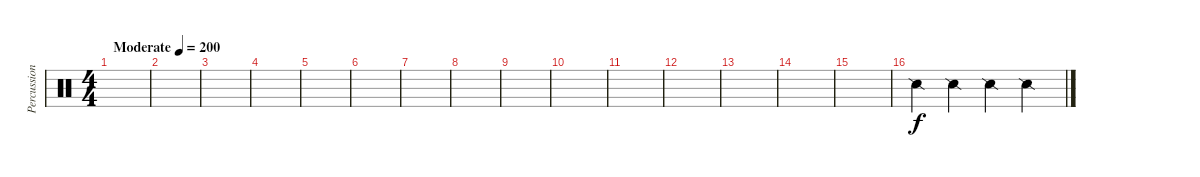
\track ("Percussion" "Percussion") {instrument percussion}
\staff {score}
\articulation defaults
\ts (4 4)
\tempo (200 "Moderate")
\clef neutral
\ks c
|
|
|
|
|
|
|
|
|
|
|
|
|
|
|
"Snare (side stick) 2".4 "Snare (side stick) 2".4 "Snare (side stick) 2".4 "Snare (side stick) 2".4
